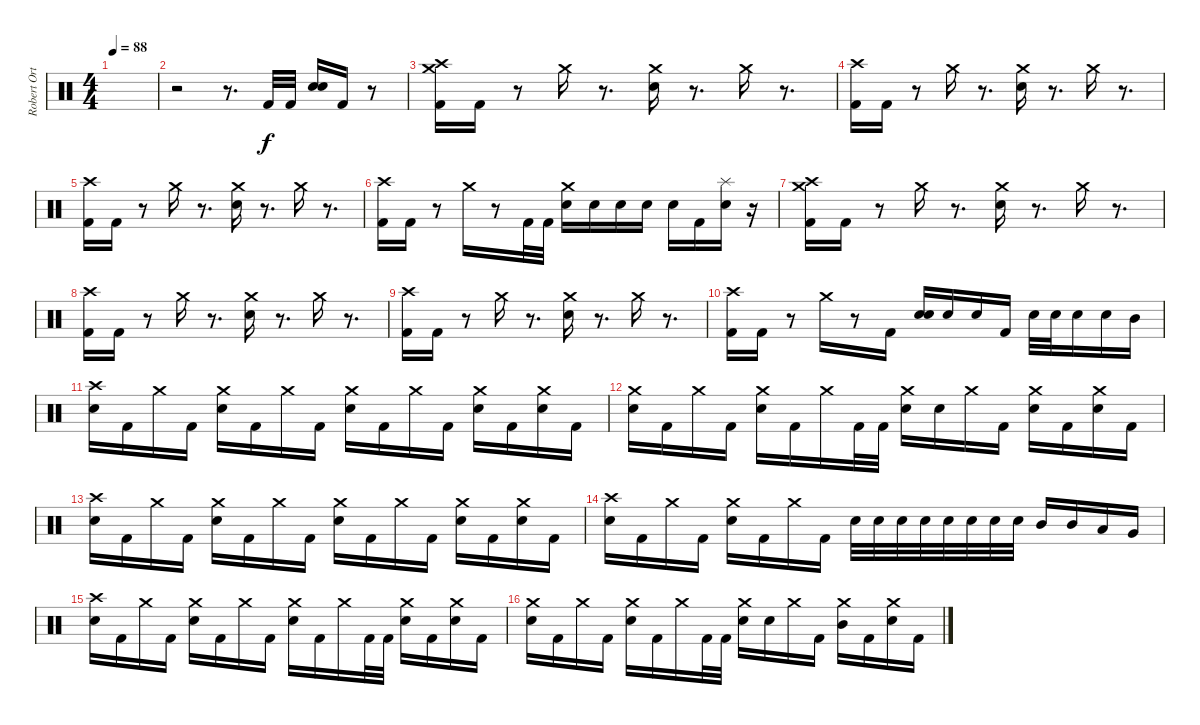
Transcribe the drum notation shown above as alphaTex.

\track ("Robert Ortiz" "Robert Ort") {instrument percussion}
\staff {score}
\articulation defaults
\ts (4 4)
\tempo 88
\clef neutral
\ks c
|
r.2 r.8{d} "Kick (hit) 2".32 "Kick (hit) 2".32 ("Electric Snare (hit)" "Electric Snare (hit)").16 "Kick (hit) 2".16 r.8 |
("Kick (hit) 2" "Crash medium (hit)" "Crash high (hit)").16 "Kick (hit) 2".16 r.8 "Crash medium (hit)".16 r.8{d} ("Electric Snare (hit)" "Crash medium (hit)").16 r.8{d} "Crash medium (hit)".16 r.8{d} |
("Kick (hit) 2" "Crash high (hit)").16 "Kick (hit) 2".16 r.8 "Crash medium (hit)".16 r.8{d} ("Electric Snare (hit)" "Crash medium (hit)").16 r.8{d} "Crash medium (hit)".16 r.8{d} |
("Kick (hit) 2" "Crash high (hit)").16 "Kick (hit) 2".16 r.8 "Crash medium (hit)".16 r.8{d} ("Electric Snare (hit)" "Crash medium (hit)").16 r.8{d} "Crash medium (hit)".16 r.8{d} |
("Kick (hit) 2" "Crash high (hit)").16 "Kick (hit) 2".16 r.8 "Crash medium (hit)".16 r.8 "Kick (hit) 2".32 "Kick (hit) 2".32 ("Electric Snare (hit)" "Crash medium (hit)").16 "Electric Snare (hit)".16 "Electric Snare (hit)".16 "Electric Snare (hit)".16 "Electric Snare (hit)".16 "Kick (hit) 2".16 ("Electric Snare (hit)" "Splash (hit)").16 r.16 |
("Kick (hit) 2" "Crash medium (hit)" "Crash high (hit)").16 "Kick (hit) 2".16 r.8 "Crash medium (hit)".16 r.8{d} ("Electric Snare (hit)" "Crash medium (hit)").16 r.8{d} "Crash medium (hit)".16 r.8{d} |
("Kick (hit) 2" "Crash high (hit)").16 "Kick (hit) 2".16 r.8 "Crash medium (hit)".16 r.8{d} ("Electric Snare (hit)" "Crash medium (hit)").16 r.8{d} "Crash medium (hit)".16 r.8{d} |
("Kick (hit) 2" "Crash high (hit)").16 "Kick (hit) 2".16 r.8 "Crash medium (hit)".16 r.8{d} ("Electric Snare (hit)" "Crash medium (hit)").16 r.8{d} "Crash medium (hit)".16 r.8{d} |
("Kick (hit) 2" "Crash high (hit)").16 "Kick (hit) 2".16 r.8 "Crash medium (hit)".16 r.8 "Kick (hit) 2".16 ("Electric Snare (hit)" "Electric Snare (hit)").16 "Electric Snare (hit)".16 "Electric Snare (hit)".16 "Kick (hit) 2".16 "Electric Snare (hit)".32 "Electric Snare (hit)".32 "Electric Snare (hit)".16 "Electric Snare (hit)".16 "Mid Tom (hit)".16 |
("Electric Snare (hit)" "Crash high (hit)").16 "Kick (hit) 2".16 "Crash medium (hit)".16 "Kick (hit) 2".16 ("Electric Snare (hit)" "Crash medium (hit)").16 "Kick (hit) 2".16 "Crash medium (hit)".16 "Kick (hit) 2".16 ("Electric Snare (hit)" "Crash medium (hit)").16 "Kick (hit) 2".16 "Crash medium (hit)".16 "Kick (hit) 2".16 ("Electric Snare (hit)" "Crash medium (hit)").16 "Kick (hit) 2".16 ("Electric Snare (hit)" "Crash medium (hit)").16 "Kick (hit) 2".16 |
("Electric Snare (hit)" "Crash medium (hit)").16 "Kick (hit) 2".16 "Crash medium (hit)".16 "Kick (hit) 2".16 ("Electric Snare (hit)" "Crash medium (hit)").16 "Kick (hit) 2".16 "Crash medium (hit)".16 "Kick (hit) 2".32 "Kick (hit) 2".32 ("Electric Snare (hit)" "Crash medium (hit)").16 "Electric Snare (hit)".16 "Crash medium (hit)".16 "Kick (hit) 2".16 ("Electric Snare (hit)" "Crash medium (hit)").16 "Kick (hit) 2".16 ("Electric Snare (hit)" "Crash medium (hit)").16 "Kick (hit) 2".16 |
("Electric Snare (hit)" "Crash high (hit)").16 "Kick (hit) 2".16 "Crash medium (hit)".16 "Kick (hit) 2".16 ("Electric Snare (hit)" "Crash medium (hit)").16 "Kick (hit) 2".16 "Crash medium (hit)".16 "Kick (hit) 2".16 ("Electric Snare (hit)" "Crash medium (hit)").16 "Kick (hit) 2".16 "Crash medium (hit)".16 "Kick (hit) 2".16 ("Electric Snare (hit)" "Crash medium (hit)").16 "Kick (hit) 2".16 ("Electric Snare (hit)" "Crash medium (hit)").16 "Kick (hit) 2".16 |
("Electric Snare (hit)" "Crash high (hit)").16 "Kick (hit) 2".16 "Crash medium (hit)".16 "Kick (hit) 2".16 ("Electric Snare (hit)" "Crash medium (hit)").16 "Kick (hit) 2".16 "Crash medium (hit)".16 "Kick (hit) 2".16 "Electric Snare (hit)".32 "Electric Snare (hit)".32 "Electric Snare (hit)".32 "Electric Snare (hit)".32 "Electric Snare (hit)".32 "Electric Snare (hit)".32 "Electric Snare (hit)".32 "Electric Snare (hit)".32 "Mid Tom (hit)".16 "Mid Tom (hit)".16 "Low Tom (hit)".16 "Very Low Tom (hit)".16 |
("Electric Snare (hit)" "Crash high (hit)").16 "Kick (hit) 2".16 "Crash medium (hit)".16 "Kick (hit) 2".16 ("Electric Snare (hit)" "Crash medium (hit)").16 "Kick (hit) 2".16 "Crash medium (hit)".16 "Kick (hit) 2".16 ("Electric Snare (hit)" "Crash medium (hit)").16 "Kick (hit) 2".16 "Crash medium (hit)".16 "Kick (hit) 2".32 "Kick (hit) 2".32 ("Electric Snare (hit)" "Crash medium (hit)").16 "Kick (hit) 2".16 ("Electric Snare (hit)" "Crash medium (hit)").16 "Kick (hit) 2".16 |
("Electric Snare (hit)" "Crash medium (hit)").16 "Kick (hit) 2".16 "Crash medium (hit)".16 "Kick (hit) 2".16 ("Electric Snare (hit)" "Crash medium (hit)").16 "Kick (hit) 2".16 "Crash medium (hit)".16 "Kick (hit) 2".32 "Kick (hit) 2".32 ("Electric Snare (hit)" "Crash medium (hit)").16 "Electric Snare (hit)".16 "Crash medium (hit)".16 "Kick (hit) 2".16 ("Mid Tom (hit)" "Crash medium (hit)").16 "Kick (hit) 2".16 ("Electric Snare (hit)" "Crash medium (hit)").16 "Kick (hit) 2".16
